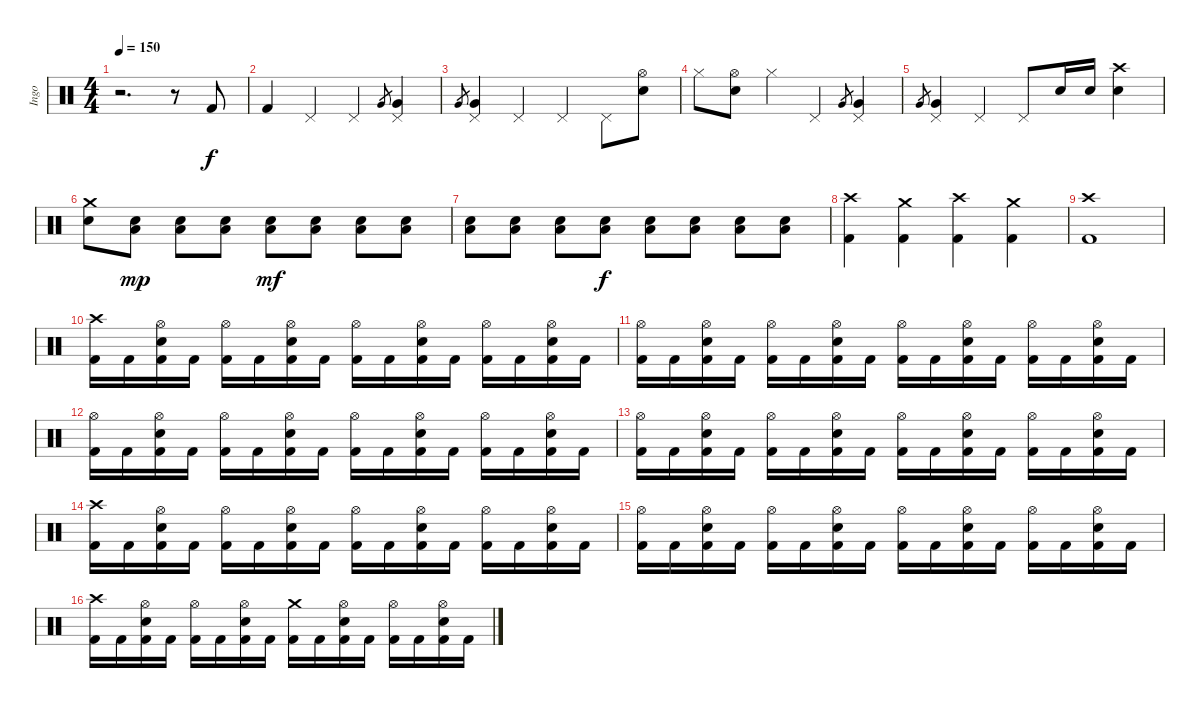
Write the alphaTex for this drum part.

\track ("Ingo" "Ingo") {instrument percussion}
\staff {score}
\articulation defaults
\ts (4 4)
\tempo 150
\clef neutral
\ks c
r.2{d dy f} r.8 "Kick (hit) 2".8 |
"Kick (hit) 2".4 "Pedal Hi-Hat (hit)".4 "Pedal Hi-Hat (hit)".4 "Very Low Tom (hit)".8{gr} ("Very Low Tom (hit)" "Pedal Hi-Hat (hit)").4 |
"Very Low Tom (hit)".8{gr} ("Very Low Tom (hit)" "Pedal Hi-Hat (hit)").4 "Pedal Hi-Hat (hit)".4 "Pedal Hi-Hat (hit)".4 "Pedal Hi-Hat (hit)".8 ("Hi-Hat (open)" "Electric Snare (hit)").8 |
"Hi-Hat (closed)".8 ("Hi-Hat (open)" "Electric Snare (hit)").8 "Hi-Hat (closed)".4 "Pedal Hi-Hat (hit)".4 "Very Low Tom (hit)".8{gr} ("Very Low Tom (hit)" "Pedal Hi-Hat (hit)").4 |
"Very Low Tom (hit)".8{gr} ("Very Low Tom (hit)" "Pedal Hi-Hat (hit)").4 "Pedal Hi-Hat (hit)".4 "Pedal Hi-Hat (hit)".8 "Electric Snare (hit)".16 "Electric Snare (hit)".16 ("Crash high (hit)" "Electric Snare (hit)").4 |
("Crash medium (hit)" "Electric Snare (hit)").8 ("Electric Snare (hit)" "Low Tom (hit)").8{dy mp} ("Electric Snare (hit)" "Low Tom (hit)").8 ("Electric Snare (hit)" "Low Tom (hit)").8 ("Electric Snare (hit)" "Low Tom (hit)").8{dy mf} ("Electric Snare (hit)" "Low Tom (hit)").8 ("Electric Snare (hit)" "Low Tom (hit)").8 ("Electric Snare (hit)" "Low Tom (hit)").8 |
("Electric Snare (hit)" "Low Tom (hit)").8 ("Electric Snare (hit)" "Low Tom (hit)").8 ("Electric Snare (hit)" "Low Tom (hit)").8 ("Electric Snare (hit)" "Low Tom (hit)").8{dy f} ("Electric Snare (hit)" "Low Tom (hit)").8 ("Electric Snare (hit)" "Low Tom (hit)").8 ("Electric Snare (hit)" "Low Tom (hit)").8 ("Electric Snare (hit)" "Low Tom (hit)").8 |
("Crash high (hit)" "Kick (hit) 2").4 ("Crash medium (hit)" "Kick (hit) 2").4 ("Crash high (hit)" "Kick (hit) 2").4 ("Crash medium (hit)" "Kick (hit) 2").4 |
("Crash high (hit)" "Kick (hit) 2").1 |
("Crash high (hit)" "Kick (hit) 2").16 "Kick (hit) 2".16 ("Hi-Hat (open)" "Electric Snare (hit)" "Kick (hit) 2").16 "Kick (hit) 2".16 ("Hi-Hat (open)" "Kick (hit) 2").16 "Kick (hit) 2".16 ("Hi-Hat (open)" "Electric Snare (hit)" "Kick (hit) 2").16 "Kick (hit) 2".16 ("Hi-Hat (open)" "Kick (hit) 2").16 "Kick (hit) 2".16 ("Hi-Hat (open)" "Electric Snare (hit)" "Kick (hit) 2").16 "Kick (hit) 2".16 ("Hi-Hat (open)" "Kick (hit) 2").16 "Kick (hit) 2".16 ("Hi-Hat (open)" "Electric Snare (hit)" "Kick (hit) 2").16 "Kick (hit) 2".16 |
("Hi-Hat (open)" "Kick (hit) 2").16 "Kick (hit) 2".16 ("Hi-Hat (open)" "Electric Snare (hit)" "Kick (hit) 2").16 "Kick (hit) 2".16 ("Hi-Hat (open)" "Kick (hit) 2").16 "Kick (hit) 2".16 ("Hi-Hat (open)" "Electric Snare (hit)" "Kick (hit) 2").16 "Kick (hit) 2".16 ("Hi-Hat (open)" "Kick (hit) 2").16 "Kick (hit) 2".16 ("Hi-Hat (open)" "Electric Snare (hit)" "Kick (hit) 2").16 "Kick (hit) 2".16 ("Hi-Hat (open)" "Kick (hit) 2").16 "Kick (hit) 2".16 ("Hi-Hat (open)" "Electric Snare (hit)" "Kick (hit) 2").16 "Kick (hit) 2".16 |
("Hi-Hat (open)" "Kick (hit) 2").16 "Kick (hit) 2".16 ("Hi-Hat (open)" "Electric Snare (hit)" "Kick (hit) 2").16 "Kick (hit) 2".16 ("Hi-Hat (open)" "Kick (hit) 2").16 "Kick (hit) 2".16 ("Hi-Hat (open)" "Electric Snare (hit)" "Kick (hit) 2").16 "Kick (hit) 2".16 ("Hi-Hat (open)" "Kick (hit) 2").16 "Kick (hit) 2".16 ("Hi-Hat (open)" "Electric Snare (hit)" "Kick (hit) 2").16 "Kick (hit) 2".16 ("Hi-Hat (open)" "Kick (hit) 2").16 "Kick (hit) 2".16 ("Hi-Hat (open)" "Electric Snare (hit)" "Kick (hit) 2").16 "Kick (hit) 2".16 |
("Hi-Hat (open)" "Kick (hit) 2").16 "Kick (hit) 2".16 ("Hi-Hat (open)" "Electric Snare (hit)" "Kick (hit) 2").16 "Kick (hit) 2".16 ("Hi-Hat (open)" "Kick (hit) 2").16 "Kick (hit) 2".16 ("Hi-Hat (open)" "Electric Snare (hit)" "Kick (hit) 2").16 "Kick (hit) 2".16 ("Hi-Hat (open)" "Kick (hit) 2").16 "Kick (hit) 2".16 ("Hi-Hat (open)" "Electric Snare (hit)" "Kick (hit) 2").16 "Kick (hit) 2".16 ("Hi-Hat (open)" "Kick (hit) 2").16 "Kick (hit) 2".16 ("Hi-Hat (open)" "Electric Snare (hit)" "Kick (hit) 2").16 "Kick (hit) 2".16 |
("Crash high (hit)" "Kick (hit) 2").16 "Kick (hit) 2".16 ("Hi-Hat (open)" "Electric Snare (hit)" "Kick (hit) 2").16 "Kick (hit) 2".16 ("Hi-Hat (open)" "Kick (hit) 2").16 "Kick (hit) 2".16 ("Hi-Hat (open)" "Electric Snare (hit)" "Kick (hit) 2").16 "Kick (hit) 2".16 ("Hi-Hat (open)" "Kick (hit) 2").16 "Kick (hit) 2".16 ("Hi-Hat (open)" "Electric Snare (hit)" "Kick (hit) 2").16 "Kick (hit) 2".16 ("Hi-Hat (open)" "Kick (hit) 2").16 "Kick (hit) 2".16 ("Hi-Hat (open)" "Electric Snare (hit)" "Kick (hit) 2").16 "Kick (hit) 2".16 |
("Hi-Hat (open)" "Kick (hit) 2").16 "Kick (hit) 2".16 ("Hi-Hat (open)" "Electric Snare (hit)" "Kick (hit) 2").16 "Kick (hit) 2".16 ("Hi-Hat (open)" "Kick (hit) 2").16 "Kick (hit) 2".16 ("Hi-Hat (open)" "Electric Snare (hit)" "Kick (hit) 2").16 "Kick (hit) 2".16 ("Hi-Hat (open)" "Kick (hit) 2").16 "Kick (hit) 2".16 ("Hi-Hat (open)" "Electric Snare (hit)" "Kick (hit) 2").16 "Kick (hit) 2".16 ("Hi-Hat (open)" "Kick (hit) 2").16 "Kick (hit) 2".16 ("Hi-Hat (open)" "Electric Snare (hit)" "Kick (hit) 2").16 "Kick (hit) 2".16 |
("Crash high (hit)" "Kick (hit) 2").16 "Kick (hit) 2".16 ("Hi-Hat (open)" "Electric Snare (hit)" "Kick (hit) 2").16 "Kick (hit) 2".16 ("Hi-Hat (open)" "Kick (hit) 2").16 "Kick (hit) 2".16 ("Hi-Hat (open)" "Electric Snare (hit)" "Kick (hit) 2").16 "Kick (hit) 2".16 ("Crash medium (hit)" "Kick (hit) 2").16 "Kick (hit) 2".16 ("Hi-Hat (open)" "Electric Snare (hit)" "Kick (hit) 2").16 "Kick (hit) 2".16 ("Hi-Hat (open)" "Kick (hit) 2").16 "Kick (hit) 2".16 ("Hi-Hat (open)" "Electric Snare (hit)" "Kick (hit) 2").16 "Kick (hit) 2".16
